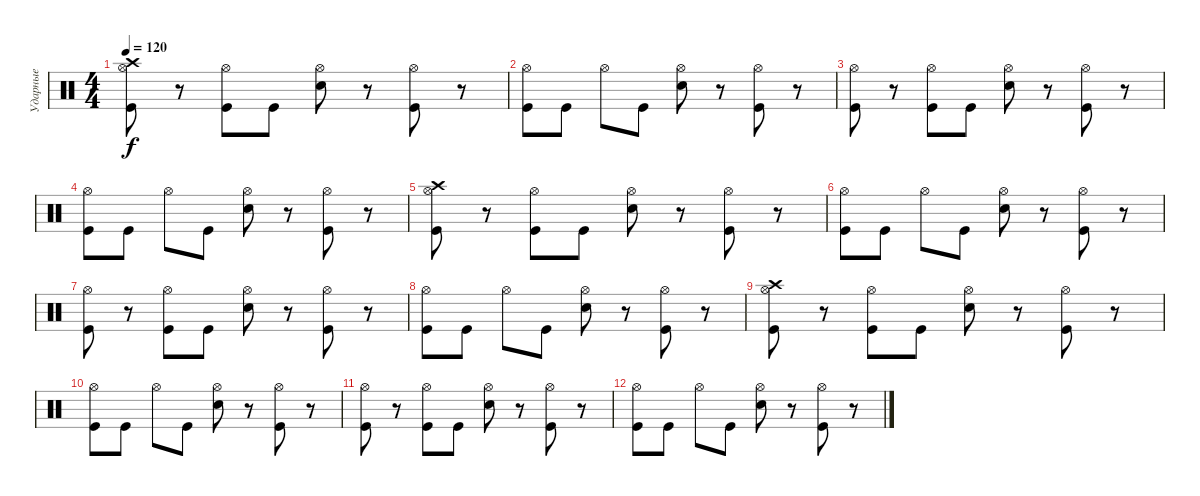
\track ("Ударные" "Ударные") {instrument percussion}
\staff {score}
\articulation defaults
\ts (4 4)
\tempo 120
\clef neutral
\ks c
("Crash high (hit)" "Hi-Hat (open)" "Kick (hit)").8{dy f} r.8 ("Hi-Hat (open)" "Kick (hit)").8 "Kick (hit)".8 ("Hi-Hat (open)" "Electric Snare (hit)").8 r.8 ("Hi-Hat (open)" "Kick (hit)").8 r.8 |
("Hi-Hat (open)" "Kick (hit)").8 "Kick (hit)".8 "Hi-Hat (open)".8 "Kick (hit)".8 ("Hi-Hat (open)" "Electric Snare (hit)").8 r.8 ("Hi-Hat (open)" "Kick (hit)").8 r.8 |
("Hi-Hat (open)" "Kick (hit)").8 r.8 ("Hi-Hat (open)" "Kick (hit)").8 "Kick (hit)".8 ("Hi-Hat (open)" "Electric Snare (hit)").8 r.8 ("Hi-Hat (open)" "Kick (hit)").8 r.8 |
("Hi-Hat (open)" "Kick (hit)").8 "Kick (hit)".8 "Hi-Hat (open)".8 "Kick (hit)".8 ("Hi-Hat (open)" "Electric Snare (hit)").8 r.8 ("Hi-Hat (open)" "Kick (hit)").8 r.8 |
("Crash high (hit)" "Hi-Hat (open)" "Kick (hit)").8 r.8 ("Hi-Hat (open)" "Kick (hit)").8 "Kick (hit)".8 ("Hi-Hat (open)" "Electric Snare (hit)").8 r.8 ("Hi-Hat (open)" "Kick (hit)").8 r.8 |
("Hi-Hat (open)" "Kick (hit)").8 "Kick (hit)".8 "Hi-Hat (open)".8 "Kick (hit)".8 ("Hi-Hat (open)" "Electric Snare (hit)").8 r.8 ("Hi-Hat (open)" "Kick (hit)").8 r.8 |
("Hi-Hat (open)" "Kick (hit)").8 r.8 ("Hi-Hat (open)" "Kick (hit)").8 "Kick (hit)".8 ("Hi-Hat (open)" "Electric Snare (hit)").8 r.8 ("Hi-Hat (open)" "Kick (hit)").8 r.8 |
("Hi-Hat (open)" "Kick (hit)").8 "Kick (hit)".8 "Hi-Hat (open)".8 "Kick (hit)".8 ("Hi-Hat (open)" "Electric Snare (hit)").8 r.8 ("Hi-Hat (open)" "Kick (hit)").8 r.8 |
("Crash high (hit)" "Hi-Hat (open)" "Kick (hit)").8 r.8 ("Hi-Hat (open)" "Kick (hit)").8 "Kick (hit)".8 ("Hi-Hat (open)" "Electric Snare (hit)").8 r.8 ("Hi-Hat (open)" "Kick (hit)").8 r.8 |
("Hi-Hat (open)" "Kick (hit)").8 "Kick (hit)".8 "Hi-Hat (open)".8 "Kick (hit)".8 ("Hi-Hat (open)" "Electric Snare (hit)").8 r.8 ("Hi-Hat (open)" "Kick (hit)").8 r.8 |
("Hi-Hat (open)" "Kick (hit)").8 r.8 ("Hi-Hat (open)" "Kick (hit)").8 "Kick (hit)".8 ("Hi-Hat (open)" "Electric Snare (hit)").8 r.8 ("Hi-Hat (open)" "Kick (hit)").8 r.8 |
("Hi-Hat (open)" "Kick (hit)").8 "Kick (hit)".8 "Hi-Hat (open)".8 "Kick (hit)".8 ("Hi-Hat (open)" "Electric Snare (hit)").8 r.8 ("Hi-Hat (open)" "Kick (hit)").8 r.8
